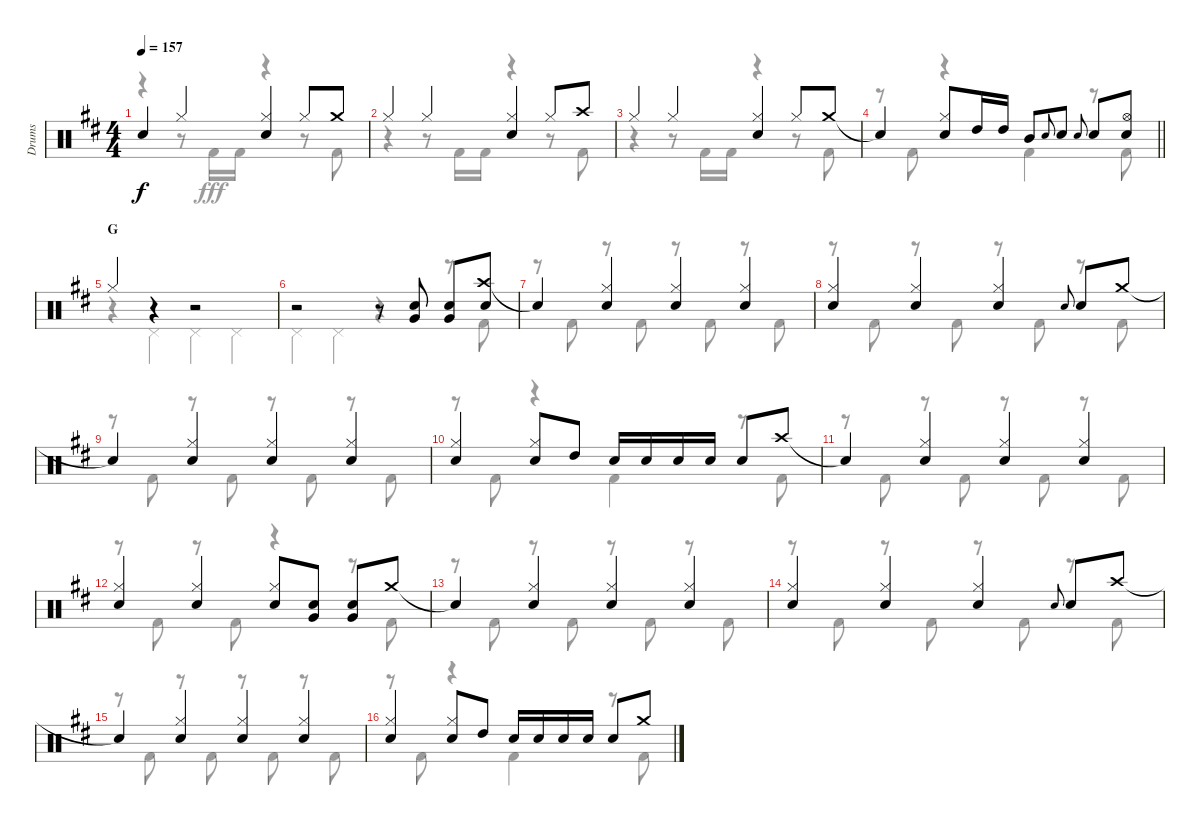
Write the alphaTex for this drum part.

\track ("Drums" "Drums") {instrument percussion}
\staff {score}
\articulation defaults
\voice
\ts (4 4)
\tempo 157
\clef neutral
\ks d "Snare (hit)"{t}.4{dy f} "Hi-Hat (closed)".4
("Hi-Hat (closed)" "Snare (hit) 2").4 "Hi-Hat (closed)".8 "Crash medium (hit)".8 |
"Hi-Hat (closed)".4 "Hi-Hat (closed)".4 ("Hi-Hat (closed)" "Snare (hit) 2").4 "Hi-Hat (closed)".8 "Crash high (hit)".8 |
"Hi-Hat (closed)".4 "Hi-Hat (closed)".4 ("Hi-Hat (closed)" "Snare (hit) 2").4 "Hi-Hat (closed)".8 "Crash medium (hit)".8 |
\barLineRight lightlight "Snare (hit)"{t}.4
("Hi-Hat (closed)" "Snare (hit) 2").8 "High Tom (hit)".16 "High Tom (hit)".16 "Mid Tom (hit)".8 "Snare (hit) 2".8{gr onbeat} "Snare (hit) 2".8 "Snare (hit) 2".8{gr onbeat} "Snare (hit) 2".8 ("Hi-Hat (open)" "Snare (hit) 2").8 |
\section ("" "G")
"Hi-Hat (closed)".4 r.4 r.2 |
r.2 r.8 ("Snare (hit) 2" "Very Low Tom (hit)").8 ("Snare (hit) 2" "Very Low Tom (hit)").8 ("Crash high (hit)" "Snare (hit) 2").8 |
"Snare (hit)"{t}.4 ("Hi-Hat (closed)" "Snare (hit) 2").4 ("Hi-Hat (closed)" "Snare (hit) 2").4 ("Hi-Hat (closed)" "Snare (hit) 2").4 |
("Hi-Hat (closed)" "Snare (hit) 2").4 ("Hi-Hat (closed)" "Snare (hit) 2").4 ("Hi-Hat (closed)" "Snare (hit) 2").4 "Snare (hit) 2".8{gr onbeat} "Snare (hit) 2".8 "Crash medium (hit)".8 |
"Snare (hit)"{t}.4 ("Hi-Hat (closed)" "Snare (hit) 2").4 ("Hi-Hat (closed)" "Snare (hit) 2").4 ("Hi-Hat (closed)" "Snare (hit) 2").4 |
("Hi-Hat (closed)" "Snare (hit) 2").4 ("Hi-Hat (closed)" "Snare (hit) 2").8 "High Tom (hit)".8 "Snare (hit) 2".16 "Snare (hit) 2".16 "Snare (hit) 2".16 "Snare (hit) 2".16 "Snare (hit) 2".8 "Crash high (hit)".8 |
"Snare (hit)"{t}.4 ("Hi-Hat (closed)" "Snare (hit) 2").4 ("Hi-Hat (closed)" "Snare (hit) 2").4 ("Hi-Hat (closed)" "Snare (hit) 2").4 |
("Hi-Hat (closed)" "Snare (hit) 2").4 ("Hi-Hat (closed)" "Snare (hit) 2").4 ("Hi-Hat (closed)" "Snare (hit) 2").8 ("Snare (hit) 2" "Very Low Tom (hit)").8 ("Snare (hit) 2" "Very Low Tom (hit)").8 "Crash medium (hit)".8 |
"Snare (hit)"{t}.4 ("Hi-Hat (closed)" "Snare (hit) 2").4 ("Hi-Hat (closed)" "Snare (hit) 2").4 ("Hi-Hat (closed)" "Snare (hit) 2").4 |
("Hi-Hat (closed)" "Snare (hit) 2").4 ("Hi-Hat (closed)" "Snare (hit) 2").4 ("Hi-Hat (closed)" "Snare (hit) 2").4 "Snare (hit) 2".8{gr onbeat} "Snare (hit) 2".8 "Crash high (hit)".8 |
"Snare (hit)"{t}.4 ("Hi-Hat (closed)" "Snare (hit) 2").4 ("Hi-Hat (closed)" "Snare (hit) 2").4 ("Hi-Hat (closed)" "Snare (hit) 2").4 |
("Hi-Hat (closed)" "Snare (hit) 2").4 ("Hi-Hat (closed)" "Snare (hit) 2").8 "High Tom (hit)".8 "Snare (hit) 2".16 "Snare (hit) 2".16 "Snare (hit) 2".16 "Snare (hit) 2".16 "Snare (hit) 2".8 "Crash medium (hit)".8
\voice
\clef neutral
\ottava regular
\simile none
\ks d
r.4{dy fff} r.8 "Kick (hit) 2".16 "Kick (hit) 2".16 r.4 r.8 "Kick (hit) 2".8 |
r.4 r.8 "Kick (hit) 2".16 "Kick (hit) 2".16 r.4 r.8 "Kick (hit) 2".8 |
r.4 r.8 "Kick (hit) 2".16 "Kick (hit) 2".16 r.4 r.8 "Kick (hit) 2".8 |
\barLineRight lightlight
r.8 "Kick (hit) 2".8 r.4 "Kick (hit) 2".4 r.8 "Kick (hit) 2".8 |
r.4 "Pedal Hi-Hat (hit)".4 "Pedal Hi-Hat (hit)".4 "Pedal Hi-Hat (hit)".4 |
"Pedal Hi-Hat (hit)".4 "Pedal Hi-Hat (hit)".4 r.4 r.8 "Kick (hit) 2".8 |
r.8 "Kick (hit) 2".8 r.8 "Kick (hit) 2".8 r.8 "Kick (hit) 2".8 r.8 "Kick (hit) 2".8 |
r.8 "Kick (hit) 2".8 r.8 "Kick (hit) 2".8 r.8 "Kick (hit) 2".8 r.8 "Kick (hit) 2".8 |
r.8 "Kick (hit) 2".8 r.8 "Kick (hit) 2".8 r.8 "Kick (hit) 2".8 r.8 "Kick (hit) 2".8 |
r.8 "Kick (hit) 2".8 r.4 "Kick (hit) 2".4 r.8 "Kick (hit) 2".8 |
r.8 "Kick (hit) 2".8 r.8 "Kick (hit) 2".8 r.8 "Kick (hit) 2".8 r.8 "Kick (hit) 2".8 |
r.8 "Kick (hit) 2".8 r.8 "Kick (hit) 2".8 r.4 r.8 "Kick (hit) 2".8 |
r.8 "Kick (hit) 2".8 r.8 "Kick (hit) 2".8 r.8 "Kick (hit) 2".8 r.8 "Kick (hit) 2".8 |
r.8 "Kick (hit) 2".8 r.8 "Kick (hit) 2".8 r.8 "Kick (hit) 2".8 r.8 "Kick (hit) 2".8 |
r.8 "Kick (hit) 2".8 r.8 "Kick (hit) 2".8 r.8 "Kick (hit) 2".8 r.8 "Kick (hit) 2".8 |
r.8 "Kick (hit) 2".8 r.4 "Kick (hit) 2".4 r.8 "Kick (hit) 2".8
